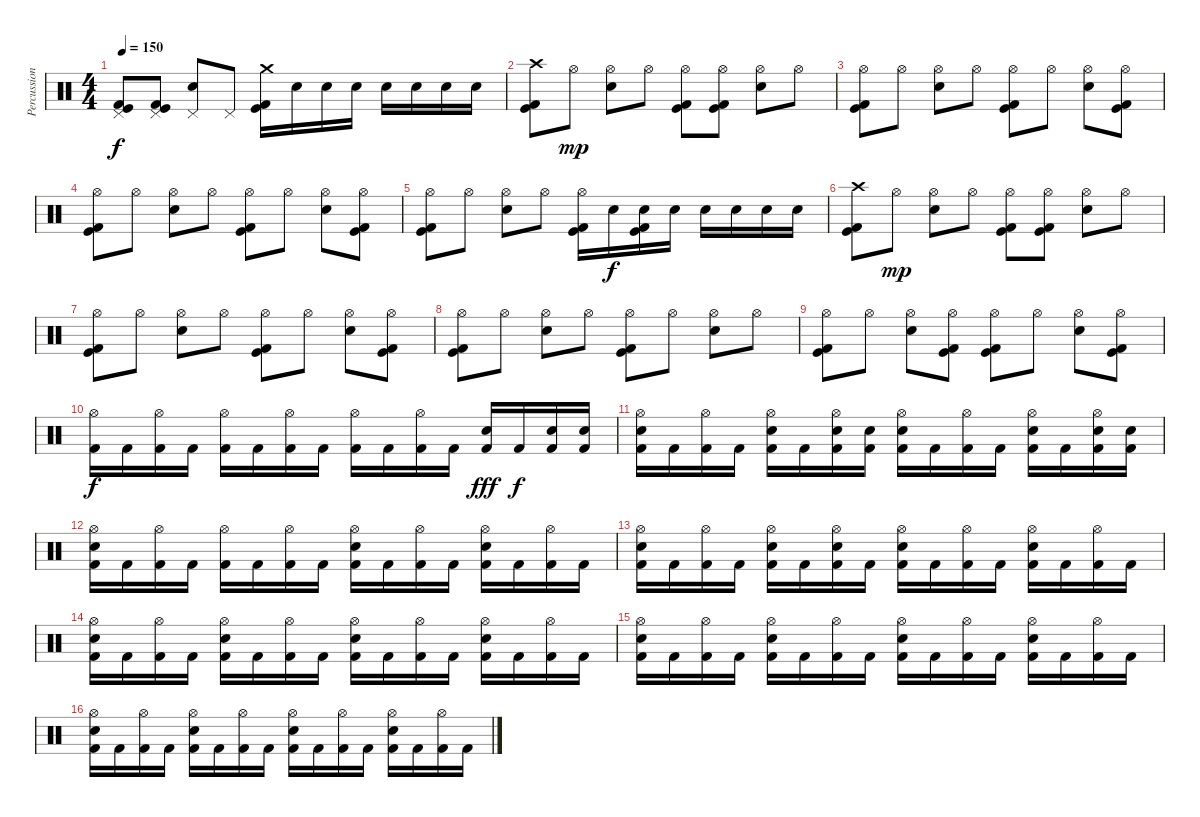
\track ("Percussions" "Percussion") {instrument percussion}
\staff {score}
\articulation defaults
\ts (4 4)
\tempo 150
\clef neutral
\ks c
("Pedal Hi-Hat (hit)" "Kick (hit)" "Kick (hit) 2").8{dy f} ("Pedal Hi-Hat (hit)" "Kick (hit)" "Kick (hit) 2").8 ("Pedal Hi-Hat (hit)" "Electric Snare (hit)").8 "Pedal Hi-Hat (hit)".8 ("Crash medium (hit)" "Kick (hit)" "Kick (hit) 2").16 "Electric Snare (hit)".16 "Electric Snare (hit)".16 "Electric Snare (hit)".16 "Electric Snare (hit)".16 "Electric Snare (hit)".16 "Electric Snare (hit)".16 "Electric Snare (hit)".16 |
("Crash high (hit)" "Kick (hit)" "Kick (hit) 2").8 "Hi-Hat (open)".8{dy mp} ("Hi-Hat (open)" "Electric Snare (hit)").8 "Hi-Hat (open)".8 ("Hi-Hat (open)" "Kick (hit)" "Kick (hit) 2").8 ("Hi-Hat (open)" "Kick (hit)" "Kick (hit) 2").8 ("Hi-Hat (open)" "Electric Snare (hit)").8 "Hi-Hat (open)".8 |
("Hi-Hat (open)" "Kick (hit)" "Kick (hit) 2").8 "Hi-Hat (open)".8 ("Hi-Hat (open)" "Electric Snare (hit)").8 "Hi-Hat (open)".8 ("Hi-Hat (open)" "Kick (hit)" "Kick (hit) 2").8 "Hi-Hat (open)".8 ("Hi-Hat (open)" "Electric Snare (hit)").8 ("Hi-Hat (open)" "Kick (hit)" "Kick (hit) 2").8 |
("Hi-Hat (open)" "Kick (hit)" "Kick (hit) 2").8 "Hi-Hat (open)".8 ("Hi-Hat (open)" "Electric Snare (hit)").8 "Hi-Hat (open)".8 ("Hi-Hat (open)" "Kick (hit)" "Kick (hit) 2").8 "Hi-Hat (open)".8 ("Hi-Hat (open)" "Electric Snare (hit)").8 ("Hi-Hat (open)" "Kick (hit)" "Kick (hit) 2").8 |
("Hi-Hat (open)" "Kick (hit)" "Kick (hit) 2").8 "Hi-Hat (open)".8 ("Hi-Hat (open)" "Electric Snare (hit)").8 "Hi-Hat (open)".8 ("Hi-Hat (open)" "Kick (hit)" "Kick (hit) 2").16 "Electric Snare (hit)".16{dy f} ("Electric Snare (hit)" "Kick (hit)" "Kick (hit) 2").16 "Electric Snare (hit)".16 "Electric Snare (hit)".16 "Electric Snare (hit)".16 "Electric Snare (hit)".16 "Electric Snare (hit)".16 |
("Crash high (hit)" "Kick (hit)" "Kick (hit) 2").8 "Hi-Hat (open)".8{dy mp} ("Hi-Hat (open)" "Electric Snare (hit)").8 "Hi-Hat (open)".8 ("Hi-Hat (open)" "Kick (hit)" "Kick (hit) 2").8 ("Hi-Hat (open)" "Kick (hit)" "Kick (hit) 2").8 ("Hi-Hat (open)" "Electric Snare (hit)").8 "Hi-Hat (open)".8 |
("Hi-Hat (open)" "Kick (hit)" "Kick (hit) 2").8 "Hi-Hat (open)".8 ("Hi-Hat (open)" "Electric Snare (hit)").8 "Hi-Hat (open)".8 ("Hi-Hat (open)" "Kick (hit)" "Kick (hit) 2").8 "Hi-Hat (open)".8 ("Hi-Hat (open)" "Electric Snare (hit)").8 ("Hi-Hat (open)" "Kick (hit)" "Kick (hit) 2").8 |
("Hi-Hat (open)" "Kick (hit)" "Kick (hit) 2").8 "Hi-Hat (open)".8 ("Hi-Hat (open)" "Electric Snare (hit)").8 "Hi-Hat (open)".8 ("Hi-Hat (open)" "Kick (hit)" "Kick (hit) 2").8 "Hi-Hat (open)".8 ("Hi-Hat (open)" "Electric Snare (hit)").8 "Hi-Hat (open)".8 |
("Hi-Hat (open)" "Kick (hit)" "Kick (hit) 2").8 "Hi-Hat (open)".8 ("Hi-Hat (open)" "Electric Snare (hit)").8 ("Hi-Hat (open)" "Kick (hit)" "Kick (hit) 2").8 ("Hi-Hat (open)" "Kick (hit)" "Kick (hit) 2").8 "Hi-Hat (open)".8 ("Hi-Hat (open)" "Electric Snare (hit)").8 ("Hi-Hat (open)" "Kick (hit)" "Kick (hit) 2").8 |
("Hi-Hat (open)" "Kick (hit) 2").16{dy f} "Kick (hit) 2".16 ("Hi-Hat (open)" "Kick (hit) 2").16 "Kick (hit) 2".16 ("Hi-Hat (open)" "Kick (hit) 2").16 "Kick (hit) 2".16 ("Hi-Hat (open)" "Kick (hit) 2").16 "Kick (hit) 2".16 ("Hi-Hat (open)" "Kick (hit) 2").16 "Kick (hit) 2".16 ("Hi-Hat (open)" "Kick (hit) 2").16 "Kick (hit) 2".16 ("Electric Snare (hit)" "Kick (hit) 2").16{dy fff} "Kick (hit) 2".16{dy f} ("Electric Snare (hit)" "Kick (hit) 2").16 ("Electric Snare (hit)" "Kick (hit) 2").16 |
("Hi-Hat (open)" "Electric Snare (hit)" "Kick (hit) 2").16 "Kick (hit) 2".16 ("Hi-Hat (open)" "Kick (hit) 2").16 "Kick (hit) 2".16 ("Hi-Hat (open)" "Electric Snare (hit)" "Kick (hit) 2").16 "Kick (hit) 2".16 ("Hi-Hat (open)" "Electric Snare (hit)" "Kick (hit) 2").16 ("Electric Snare (hit)" "Kick (hit) 2").16 ("Hi-Hat (open)" "Electric Snare (hit)" "Kick (hit) 2").16 "Kick (hit) 2".16 ("Hi-Hat (open)" "Kick (hit) 2").16 "Kick (hit) 2".16 ("Hi-Hat (open)" "Electric Snare (hit)" "Kick (hit) 2").16 "Kick (hit) 2".16 ("Hi-Hat (open)" "Electric Snare (hit)" "Kick (hit) 2").16 ("Electric Snare (hit)" "Kick (hit) 2").16 |
("Hi-Hat (open)" "Electric Snare (hit)" "Kick (hit) 2").16 "Kick (hit) 2".16 ("Hi-Hat (open)" "Kick (hit) 2").16 "Kick (hit) 2".16 ("Hi-Hat (open)" "Kick (hit) 2").16 "Kick (hit) 2".16 ("Hi-Hat (open)" "Kick (hit) 2").16 "Kick (hit) 2".16 ("Hi-Hat (open)" "Electric Snare (hit)" "Kick (hit) 2").16 "Kick (hit) 2".16 ("Hi-Hat (open)" "Kick (hit) 2").16 "Kick (hit) 2".16 ("Hi-Hat (open)" "Electric Snare (hit)" "Kick (hit) 2").16 "Kick (hit) 2".16 ("Hi-Hat (open)" "Kick (hit) 2").16 "Kick (hit) 2".16 |
("Hi-Hat (open)" "Electric Snare (hit)" "Kick (hit) 2").16 "Kick (hit) 2".16 ("Hi-Hat (open)" "Kick (hit) 2").16 "Kick (hit) 2".16 ("Hi-Hat (open)" "Electric Snare (hit)" "Kick (hit) 2").16 "Kick (hit) 2".16 ("Hi-Hat (open)" "Electric Snare (hit)" "Kick (hit) 2").16 "Kick (hit) 2".16 ("Hi-Hat (open)" "Electric Snare (hit)" "Kick (hit) 2").16 "Kick (hit) 2".16 ("Hi-Hat (open)" "Kick (hit) 2").16 "Kick (hit) 2".16 ("Hi-Hat (open)" "Electric Snare (hit)" "Kick (hit) 2").16 "Kick (hit) 2".16 ("Hi-Hat (open)" "Kick (hit) 2").16 "Kick (hit) 2".16 |
("Hi-Hat (open)" "Electric Snare (hit)" "Kick (hit) 2").16 "Kick (hit) 2".16 ("Hi-Hat (open)" "Kick (hit) 2").16 "Kick (hit) 2".16 ("Hi-Hat (open)" "Electric Snare (hit)" "Kick (hit) 2").16 "Kick (hit) 2".16 ("Hi-Hat (open)" "Kick (hit) 2").16 "Kick (hit) 2".16 ("Hi-Hat (open)" "Electric Snare (hit)" "Kick (hit) 2").16 "Kick (hit) 2".16 ("Hi-Hat (open)" "Kick (hit) 2").16 "Kick (hit) 2".16 ("Hi-Hat (open)" "Electric Snare (hit)" "Kick (hit) 2").16 "Kick (hit) 2".16 ("Hi-Hat (open)" "Kick (hit) 2").16 "Kick (hit) 2".16 |
("Hi-Hat (open)" "Electric Snare (hit)" "Kick (hit) 2").16 "Kick (hit) 2".16 ("Hi-Hat (open)" "Kick (hit) 2").16 "Kick (hit) 2".16 ("Hi-Hat (open)" "Electric Snare (hit)" "Kick (hit) 2").16 "Kick (hit) 2".16 ("Hi-Hat (open)" "Kick (hit) 2").16 "Kick (hit) 2".16 ("Hi-Hat (open)" "Electric Snare (hit)" "Kick (hit) 2").16 "Kick (hit) 2".16 ("Hi-Hat (open)" "Kick (hit) 2").16 "Kick (hit) 2".16 ("Hi-Hat (open)" "Electric Snare (hit)" "Kick (hit) 2").16 "Kick (hit) 2".16 ("Hi-Hat (open)" "Kick (hit) 2").16 "Kick (hit) 2".16 |
("Hi-Hat (open)" "Electric Snare (hit)" "Kick (hit) 2").16 "Kick (hit) 2".16 ("Hi-Hat (open)" "Kick (hit) 2").16 "Kick (hit) 2".16 ("Hi-Hat (open)" "Electric Snare (hit)" "Kick (hit) 2").16 "Kick (hit) 2".16 ("Hi-Hat (open)" "Kick (hit) 2").16 "Kick (hit) 2".16 ("Hi-Hat (open)" "Electric Snare (hit)" "Kick (hit) 2").16 "Kick (hit) 2".16 ("Hi-Hat (open)" "Kick (hit) 2").16 "Kick (hit) 2".16 ("Hi-Hat (open)" "Electric Snare (hit)" "Kick (hit) 2").16 "Kick (hit) 2".16 ("Hi-Hat (open)" "Kick (hit) 2").16 "Kick (hit) 2".16
